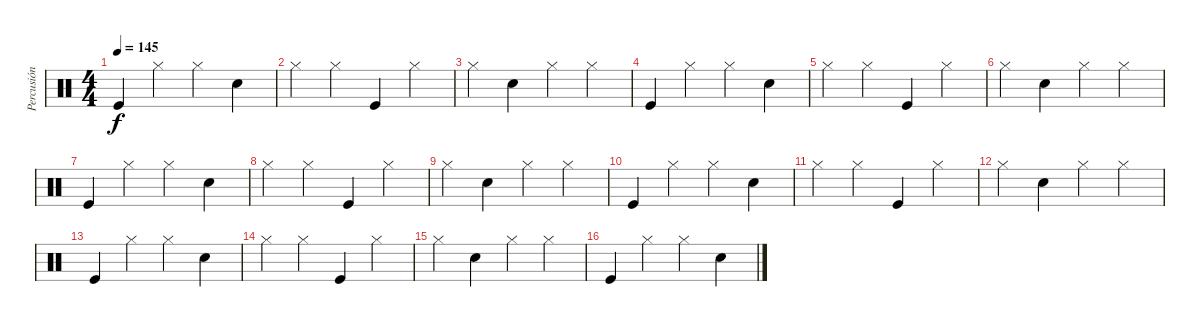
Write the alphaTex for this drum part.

\track ("Percusión" "Percusión") {instrument percussion}
\staff {score}
\articulation defaults
\ts (4 4)
\tempo 145
\clef neutral
\ks c "Kick (hit)".4{dy f} "Hi-Hat (closed)".4 "Hi-Hat (closed)".4 "Snare (hit) 2".4
|
"Hi-Hat (closed)".4 "Hi-Hat (closed)".4 "Kick (hit)".4 "Hi-Hat (closed)".4 |
"Hi-Hat (closed)".4 "Snare (hit) 2".4 "Hi-Hat (closed)".4 "Hi-Hat (closed)".4 |
"Kick (hit)".4 "Hi-Hat (closed)".4 "Hi-Hat (closed)".4 "Snare (hit) 2".4 |
"Hi-Hat (closed)".4 "Hi-Hat (closed)".4 "Kick (hit)".4 "Hi-Hat (closed)".4 |
"Hi-Hat (closed)".4 "Snare (hit) 2".4 "Hi-Hat (closed)".4 "Hi-Hat (closed)".4 |
"Kick (hit)".4 "Hi-Hat (closed)".4 "Hi-Hat (closed)".4 "Snare (hit) 2".4 |
"Hi-Hat (closed)".4 "Hi-Hat (closed)".4 "Kick (hit)".4 "Hi-Hat (closed)".4 |
"Hi-Hat (closed)".4 "Snare (hit) 2".4 "Hi-Hat (closed)".4 "Hi-Hat (closed)".4 |
"Kick (hit)".4 "Hi-Hat (closed)".4 "Hi-Hat (closed)".4 "Snare (hit) 2".4 |
"Hi-Hat (closed)".4 "Hi-Hat (closed)".4 "Kick (hit)".4 "Hi-Hat (closed)".4 |
"Hi-Hat (closed)".4 "Snare (hit) 2".4 "Hi-Hat (closed)".4 "Hi-Hat (closed)".4 |
"Kick (hit)".4 "Hi-Hat (closed)".4 "Hi-Hat (closed)".4 "Snare (hit) 2".4 |
"Hi-Hat (closed)".4 "Hi-Hat (closed)".4 "Kick (hit)".4 "Hi-Hat (closed)".4 |
"Hi-Hat (closed)".4 "Snare (hit) 2".4 "Hi-Hat (closed)".4 "Hi-Hat (closed)".4 |
"Kick (hit)".4 "Hi-Hat (closed)".4 "Hi-Hat (closed)".4 "Snare (hit) 2".4
